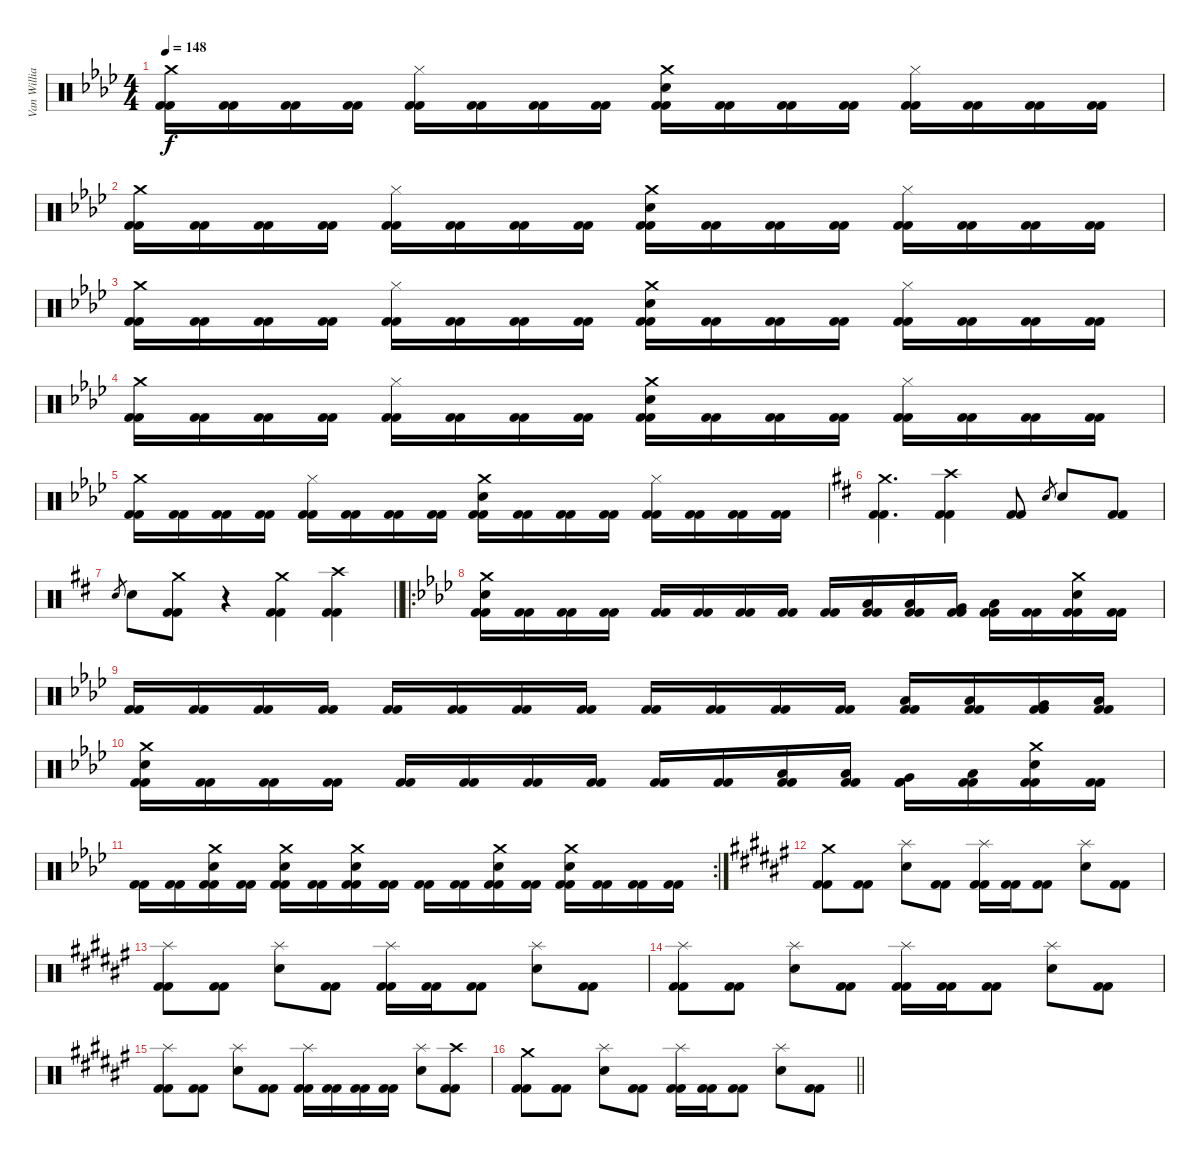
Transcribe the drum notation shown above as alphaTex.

\track ("Van Williams" "Van Willia") {instrument percussion}
\staff {score}
\articulation defaults
\ts (4 4)
\tempo 148
\clef neutral
\ks ab
("Crash medium (hit)" "Kick (hit) 2" "Kick (hit) 2").16{dy f} ("Kick (hit) 2" "Kick (hit) 2").16 ("Kick (hit) 2" "Kick (hit) 2").16 ("Kick (hit) 2" "Kick (hit) 2").16 ("Hi-Hat (closed)" "Kick (hit) 2" "Kick (hit) 2").16 ("Kick (hit) 2" "Kick (hit) 2").16 ("Kick (hit) 2" "Kick (hit) 2").16 ("Kick (hit) 2" "Kick (hit) 2").16 ("Crash medium (hit)" "Electric Snare (hit)" "Kick (hit) 2" "Kick (hit) 2").16 ("Kick (hit) 2" "Kick (hit) 2").16 ("Kick (hit) 2" "Kick (hit) 2").16 ("Kick (hit) 2" "Kick (hit) 2").16 ("Hi-Hat (closed)" "Kick (hit) 2" "Kick (hit) 2").16 ("Kick (hit) 2" "Kick (hit) 2").16 ("Kick (hit) 2" "Kick (hit) 2").16 ("Kick (hit) 2" "Kick (hit) 2").16 |
("Crash medium (hit)" "Kick (hit) 2" "Kick (hit) 2").16 ("Kick (hit) 2" "Kick (hit) 2").16 ("Kick (hit) 2" "Kick (hit) 2").16 ("Kick (hit) 2" "Kick (hit) 2").16 ("Hi-Hat (closed)" "Kick (hit) 2" "Kick (hit) 2").16 ("Kick (hit) 2" "Kick (hit) 2").16 ("Kick (hit) 2" "Kick (hit) 2").16 ("Kick (hit) 2" "Kick (hit) 2").16 ("Crash medium (hit)" "Electric Snare (hit)" "Kick (hit) 2" "Kick (hit) 2").16 ("Kick (hit) 2" "Kick (hit) 2").16 ("Kick (hit) 2" "Kick (hit) 2").16 ("Kick (hit) 2" "Kick (hit) 2").16 ("Hi-Hat (closed)" "Kick (hit) 2" "Kick (hit) 2").16 ("Kick (hit) 2" "Kick (hit) 2").16 ("Kick (hit) 2" "Kick (hit) 2").16 ("Kick (hit) 2" "Kick (hit) 2").16 |
("Crash medium (hit)" "Kick (hit) 2" "Kick (hit) 2").16 ("Kick (hit) 2" "Kick (hit) 2").16 ("Kick (hit) 2" "Kick (hit) 2").16 ("Kick (hit) 2" "Kick (hit) 2").16 ("Hi-Hat (closed)" "Kick (hit) 2" "Kick (hit) 2").16 ("Kick (hit) 2" "Kick (hit) 2").16 ("Kick (hit) 2" "Kick (hit) 2").16 ("Kick (hit) 2" "Kick (hit) 2").16 ("Crash medium (hit)" "Electric Snare (hit)" "Kick (hit) 2" "Kick (hit) 2").16 ("Kick (hit) 2" "Kick (hit) 2").16 ("Kick (hit) 2" "Kick (hit) 2").16 ("Kick (hit) 2" "Kick (hit) 2").16 ("Hi-Hat (closed)" "Kick (hit) 2" "Kick (hit) 2").16 ("Kick (hit) 2" "Kick (hit) 2").16 ("Kick (hit) 2" "Kick (hit) 2").16 ("Kick (hit) 2" "Kick (hit) 2").16 |
("Crash medium (hit)" "Kick (hit) 2" "Kick (hit) 2").16 ("Kick (hit) 2" "Kick (hit) 2").16 ("Kick (hit) 2" "Kick (hit) 2").16 ("Kick (hit) 2" "Kick (hit) 2").16 ("Hi-Hat (closed)" "Kick (hit) 2" "Kick (hit) 2").16 ("Kick (hit) 2" "Kick (hit) 2").16 ("Kick (hit) 2" "Kick (hit) 2").16 ("Kick (hit) 2" "Kick (hit) 2").16 ("Crash medium (hit)" "Electric Snare (hit)" "Kick (hit) 2" "Kick (hit) 2").16 ("Kick (hit) 2" "Kick (hit) 2").16 ("Kick (hit) 2" "Kick (hit) 2").16 ("Kick (hit) 2" "Kick (hit) 2").16 ("Hi-Hat (closed)" "Kick (hit) 2" "Kick (hit) 2").16 ("Kick (hit) 2" "Kick (hit) 2").16 ("Kick (hit) 2" "Kick (hit) 2").16 ("Kick (hit) 2" "Kick (hit) 2").16 |
("Crash medium (hit)" "Kick (hit) 2" "Kick (hit) 2").16 ("Kick (hit) 2" "Kick (hit) 2").16 ("Kick (hit) 2" "Kick (hit) 2").16 ("Kick (hit) 2" "Kick (hit) 2").16 ("Hi-Hat (closed)" "Kick (hit) 2" "Kick (hit) 2").16 ("Kick (hit) 2" "Kick (hit) 2").16 ("Kick (hit) 2" "Kick (hit) 2").16 ("Kick (hit) 2" "Kick (hit) 2").16 ("Crash medium (hit)" "Electric Snare (hit)" "Kick (hit) 2" "Kick (hit) 2").16 ("Kick (hit) 2" "Kick (hit) 2").16 ("Kick (hit) 2" "Kick (hit) 2").16 ("Kick (hit) 2" "Kick (hit) 2").16 ("Hi-Hat (closed)" "Kick (hit) 2" "Kick (hit) 2").16 ("Kick (hit) 2" "Kick (hit) 2").16 ("Kick (hit) 2" "Kick (hit) 2").16 ("Kick (hit) 2" "Kick (hit) 2").16 |
\ks d
("Crash medium (hit)" "Kick (hit) 2" "Kick (hit) 2").4{d} ("Crash high (hit)" "Kick (hit) 2" "Kick (hit) 2").4 ("Kick (hit) 2" "Kick (hit) 2").8 "Electric Snare (hit)".8{gr} "Electric Snare (hit)".8 ("Kick (hit) 2" "Kick (hit) 2").8 |
\barLineRight lightlight "Electric Snare (hit)".8{gr} "Electric Snare (hit)".8
("Crash medium (hit)" "Kick (hit) 2" "Kick (hit) 2").8 r.4 ("Crash medium (hit)" "Kick (hit) 2" "Kick (hit) 2").4 ("Crash high (hit)" "Kick (hit) 2" "Kick (hit) 2").4 |
\ro
\ks ab
("Crash medium (hit)" "Electric Snare (hit)" "Kick (hit) 2" "Kick (hit) 2").16 ("Kick (hit) 2" "Kick (hit) 2").16 ("Kick (hit) 2" "Kick (hit) 2").16 ("Kick (hit) 2" "Kick (hit) 2").16 ("Kick (hit) 2" "Kick (hit) 2").16 ("Kick (hit) 2" "Kick (hit) 2").16 ("Kick (hit) 2" "Kick (hit) 2").16 ("Kick (hit) 2" "Kick (hit) 2").16 ("Kick (hit) 2" "Kick (hit) 2").16 ("Low Tom (hit)" "Kick (hit) 2" "Kick (hit) 2").16 ("Low Tom (hit)" "Kick (hit) 2" "Kick (hit) 2").16 ("Very Low Tom (hit)" "Kick (hit) 2" "Kick (hit) 2").16 ("Low Floor Tom (hit)" "Kick (hit) 2" "Kick (hit) 2").16 ("Kick (hit) 2" "Kick (hit) 2").16 ("Crash medium (hit)" "Electric Snare (hit)" "Kick (hit) 2" "Kick (hit) 2").16 ("Kick (hit) 2" "Kick (hit) 2").16 |
("Kick (hit) 2" "Kick (hit) 2").16 ("Kick (hit) 2" "Kick (hit) 2").16 ("Kick (hit) 2" "Kick (hit) 2").16 ("Kick (hit) 2" "Kick (hit) 2").16 ("Kick (hit) 2" "Kick (hit) 2").16 ("Kick (hit) 2" "Kick (hit) 2").16 ("Kick (hit) 2" "Kick (hit) 2").16 ("Kick (hit) 2" "Kick (hit) 2").16 ("Kick (hit) 2" "Kick (hit) 2").16 ("Kick (hit) 2" "Kick (hit) 2").16 ("Kick (hit) 2" "Kick (hit) 2").16 ("Kick (hit) 2" "Kick (hit) 2").16 ("Low Tom (hit)" "Kick (hit) 2" "Kick (hit) 2").16 ("Low Tom (hit)" "Kick (hit) 2" "Kick (hit) 2").16 ("Very Low Tom (hit)" "Kick (hit) 2" "Kick (hit) 2").16 ("Low Floor Tom (hit)" "Kick (hit) 2" "Kick (hit) 2").16 |
("Crash medium (hit)" "Electric Snare (hit)" "Kick (hit) 2" "Kick (hit) 2").16 ("Kick (hit) 2" "Kick (hit) 2").16 ("Kick (hit) 2" "Kick (hit) 2").16 ("Kick (hit) 2" "Kick (hit) 2").16 ("Kick (hit) 2" "Kick (hit) 2").16 ("Kick (hit) 2" "Kick (hit) 2").16 ("Kick (hit) 2" "Kick (hit) 2").16 ("Kick (hit) 2" "Kick (hit) 2").16 ("Kick (hit) 2" "Kick (hit) 2").16 ("Kick (hit) 2" "Kick (hit) 2").16 ("Low Tom (hit)" "Kick (hit) 2" "Kick (hit) 2").16 ("Low Tom (hit)" "Kick (hit) 2" "Kick (hit) 2").16 ("Very Low Tom (hit)" "Kick (hit) 2" "Kick (hit) 2").16 ("Low Floor Tom (hit)" "Kick (hit) 2" "Kick (hit) 2").16 ("Crash medium (hit)" "Electric Snare (hit)" "Kick (hit) 2" "Kick (hit) 2").16 ("Kick (hit) 2" "Kick (hit) 2").16 |
\rc 2
("Kick (hit) 2" "Kick (hit) 2").16 ("Kick (hit) 2" "Kick (hit) 2").16 ("Crash medium (hit)" "Electric Snare (hit)" "Kick (hit) 2" "Kick (hit) 2").16 ("Kick (hit) 2" "Kick (hit) 2").16 ("Crash medium (hit)" "Electric Snare (hit)" "Kick (hit) 2" "Kick (hit) 2").16 ("Kick (hit) 2" "Kick (hit) 2").16 ("Crash medium (hit)" "Electric Snare (hit)" "Kick (hit) 2" "Kick (hit) 2").16 ("Kick (hit) 2" "Kick (hit) 2").16 ("Kick (hit) 2" "Kick (hit) 2").16 ("Kick (hit) 2" "Kick (hit) 2").16 ("Crash medium (hit)" "Electric Snare (hit)" "Kick (hit) 2" "Kick (hit) 2").16 ("Kick (hit) 2" "Kick (hit) 2").16 ("Crash medium (hit)" "Electric Snare (hit)" "Kick (hit) 2" "Kick (hit) 2").16 ("Kick (hit) 2" "Kick (hit) 2").16 ("Kick (hit) 2" "Kick (hit) 2").16 ("Kick (hit) 2" "Kick (hit) 2").16 |
\ks f#
("Crash medium (hit)" "Kick (hit) 2" "Kick (hit) 2").8 ("Kick (hit) 2" "Kick (hit) 2").8 ("Splash (hit)" "Electric Snare (hit)").8 ("Kick (hit) 2" "Kick (hit) 2").8 ("Splash (hit)" "Kick (hit) 2" "Kick (hit) 2").16 ("Kick (hit) 2" "Kick (hit) 2").16 ("Kick (hit) 2" "Kick (hit) 2").8 ("Splash (hit)" "Electric Snare (hit)").8 ("Kick (hit) 2" "Kick (hit) 2").8 |
("Splash (hit)" "Kick (hit) 2" "Kick (hit) 2").8 ("Kick (hit) 2" "Kick (hit) 2").8 ("Splash (hit)" "Electric Snare (hit)").8 ("Kick (hit) 2" "Kick (hit) 2").8 ("Splash (hit)" "Kick (hit) 2" "Kick (hit) 2").16 ("Kick (hit) 2" "Kick (hit) 2").16 ("Kick (hit) 2" "Kick (hit) 2").8 ("Splash (hit)" "Electric Snare (hit)").8 ("Kick (hit) 2" "Kick (hit) 2").8 |
("Splash (hit)" "Kick (hit) 2" "Kick (hit) 2").8 ("Kick (hit) 2" "Kick (hit) 2").8 ("Splash (hit)" "Electric Snare (hit)").8 ("Kick (hit) 2" "Kick (hit) 2").8 ("Splash (hit)" "Kick (hit) 2" "Kick (hit) 2").16 ("Kick (hit) 2" "Kick (hit) 2").16 ("Kick (hit) 2" "Kick (hit) 2").8 ("Splash (hit)" "Electric Snare (hit)").8 ("Kick (hit) 2" "Kick (hit) 2").8 |
("Splash (hit)" "Kick (hit) 2" "Kick (hit) 2").8 ("Kick (hit) 2" "Kick (hit) 2").8 ("Splash (hit)" "Electric Snare (hit)").8 ("Kick (hit) 2" "Kick (hit) 2").8 ("Splash (hit)" "Kick (hit) 2" "Kick (hit) 2").16 ("Kick (hit) 2" "Kick (hit) 2").16 ("Kick (hit) 2" "Kick (hit) 2").16 ("Kick (hit) 2" "Kick (hit) 2").16 ("Splash (hit)" "Electric Snare (hit)").8 ("Crash high (hit)" "Kick (hit) 2" "Kick (hit) 2").8 |
\barLineRight lightlight
("Crash medium (hit)" "Kick (hit) 2" "Kick (hit) 2").8 ("Kick (hit) 2" "Kick (hit) 2").8 ("Splash (hit)" "Electric Snare (hit)").8 ("Kick (hit) 2" "Kick (hit) 2").8 ("Splash (hit)" "Kick (hit) 2" "Kick (hit) 2").16 ("Kick (hit) 2" "Kick (hit) 2").16 ("Kick (hit) 2" "Kick (hit) 2").8 ("Splash (hit)" "Electric Snare (hit)").8 ("Kick (hit) 2" "Kick (hit) 2").8
